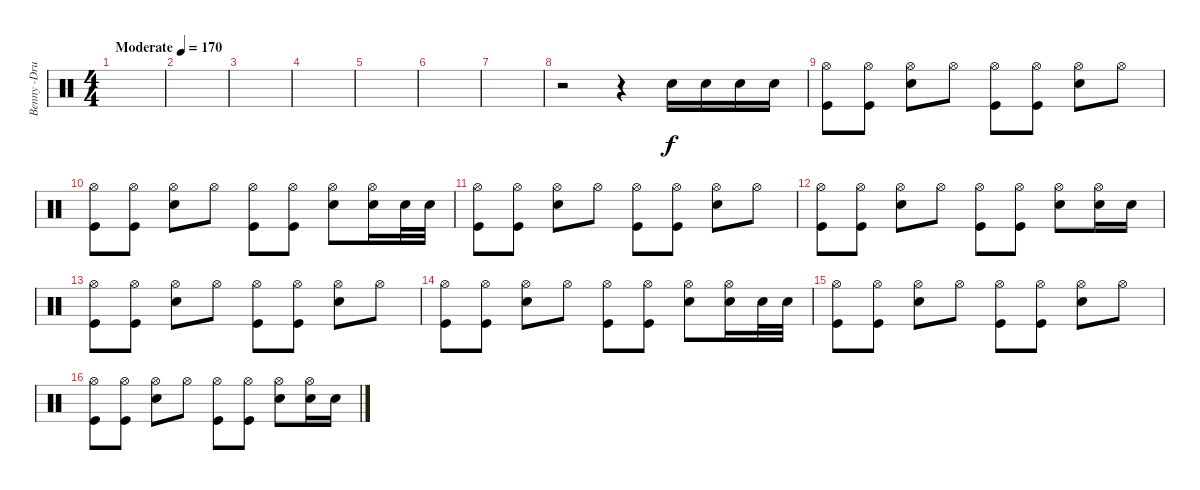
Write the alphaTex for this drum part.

\track ("Benny -Drums" "Benny -Dru") {instrument percussion}
\staff {score}
\articulation defaults
\ts (4 4)
\tempo (170 "Moderate")
\clef neutral
\ks c
|
|
|
|
|
|
|
r.2 r.4 "Electric Snare (hit)".16 "Electric Snare (hit)".16 "Electric Snare (hit)".16 "Electric Snare (hit)".16 |
("Hi-Hat (open)" "Kick (hit)").8 ("Hi-Hat (open)" "Kick (hit)").8 ("Hi-Hat (open)" "Snare (hit) 2").8 "Hi-Hat (open)".8 ("Hi-Hat (open)" "Kick (hit)").8 ("Hi-Hat (open)" "Kick (hit)").8 ("Hi-Hat (open)" "Snare (hit) 2").8 "Hi-Hat (open)".8 |
("Hi-Hat (open)" "Kick (hit)").8 ("Hi-Hat (open)" "Kick (hit)").8 ("Hi-Hat (open)" "Snare (hit) 2").8 "Hi-Hat (open)".8 ("Hi-Hat (open)" "Kick (hit)").8 ("Hi-Hat (open)" "Kick (hit)").8 ("Hi-Hat (open)" "Snare (hit) 2").8 ("Hi-Hat (open)" "Snare (hit) 2").16 "Snare (hit) 2".32 "Snare (hit) 2".32 |
("Hi-Hat (open)" "Kick (hit)").8 ("Hi-Hat (open)" "Kick (hit)").8 ("Hi-Hat (open)" "Snare (hit) 2").8 "Hi-Hat (open)".8 ("Hi-Hat (open)" "Kick (hit)").8 ("Hi-Hat (open)" "Kick (hit)").8 ("Hi-Hat (open)" "Snare (hit) 2").8 "Hi-Hat (open)".8 |
("Hi-Hat (open)" "Kick (hit)").8 ("Hi-Hat (open)" "Kick (hit)").8 ("Hi-Hat (open)" "Snare (hit) 2").8 "Hi-Hat (open)".8 ("Hi-Hat (open)" "Kick (hit)").8 ("Hi-Hat (open)" "Kick (hit)").8 ("Hi-Hat (open)" "Snare (hit) 2").8 ("Hi-Hat (open)" "Snare (hit) 2").16 "Snare (hit) 2".16 |
("Hi-Hat (open)" "Kick (hit)").8 ("Hi-Hat (open)" "Kick (hit)").8 ("Hi-Hat (open)" "Snare (hit) 2").8 "Hi-Hat (open)".8 ("Hi-Hat (open)" "Kick (hit)").8 ("Hi-Hat (open)" "Kick (hit)").8 ("Hi-Hat (open)" "Snare (hit) 2").8 "Hi-Hat (open)".8 |
("Hi-Hat (open)" "Kick (hit)").8 ("Hi-Hat (open)" "Kick (hit)").8 ("Hi-Hat (open)" "Snare (hit) 2").8 "Hi-Hat (open)".8 ("Hi-Hat (open)" "Kick (hit)").8 ("Hi-Hat (open)" "Kick (hit)").8 ("Hi-Hat (open)" "Snare (hit) 2").8 ("Hi-Hat (open)" "Snare (hit) 2").16 "Snare (hit) 2".32 "Snare (hit) 2".32 |
("Hi-Hat (open)" "Kick (hit)").8 ("Hi-Hat (open)" "Kick (hit)").8 ("Hi-Hat (open)" "Snare (hit) 2").8 "Hi-Hat (open)".8 ("Hi-Hat (open)" "Kick (hit)").8 ("Hi-Hat (open)" "Kick (hit)").8 ("Hi-Hat (open)" "Snare (hit) 2").8 "Hi-Hat (open)".8 |
("Hi-Hat (open)" "Kick (hit)").8 ("Hi-Hat (open)" "Kick (hit)").8 ("Hi-Hat (open)" "Snare (hit) 2").8 "Hi-Hat (open)".8 ("Hi-Hat (open)" "Kick (hit)").8 ("Hi-Hat (open)" "Kick (hit)").8 ("Hi-Hat (open)" "Snare (hit) 2").8 ("Hi-Hat (open)" "Snare (hit) 2").16 "Snare (hit) 2".16
